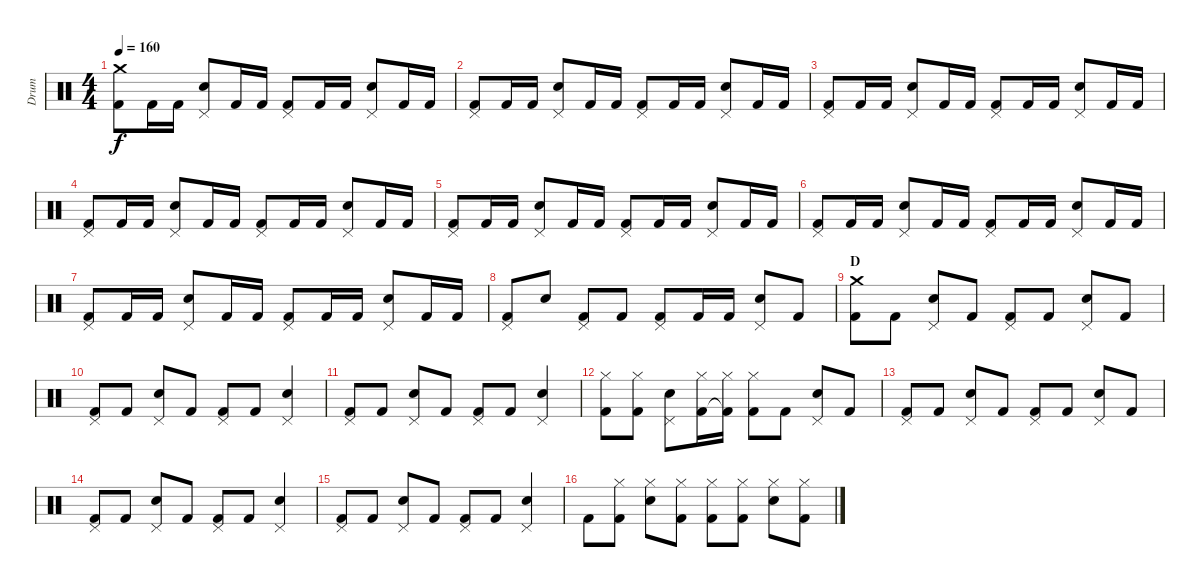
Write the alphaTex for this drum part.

\track ("Drum" "Drum") {instrument percussion}
\staff {score}
\articulation defaults
\ts (4 4)
\tempo 160
\clef neutral
\ks c
("Crash medium (hit)" "Kick (hit) 2").8{dy f} "Kick (hit) 2".16 "Kick (hit) 2".16 ("Pedal Hi-Hat (hit)" "Snare (hit) 2").8 "Kick (hit) 2".16 "Kick (hit) 2".16 ("Pedal Hi-Hat (hit)" "Kick (hit) 2").8 "Kick (hit) 2".16 "Kick (hit) 2".16 ("Pedal Hi-Hat (hit)" "Snare (hit) 2").8 "Kick (hit) 2".16 "Kick (hit) 2".16 |
("Pedal Hi-Hat (hit)" "Kick (hit) 2").8 "Kick (hit) 2".16 "Kick (hit) 2".16 ("Pedal Hi-Hat (hit)" "Snare (hit) 2").8 "Kick (hit) 2".16 "Kick (hit) 2".16 ("Pedal Hi-Hat (hit)" "Kick (hit) 2").8 "Kick (hit) 2".16 "Kick (hit) 2".16 ("Pedal Hi-Hat (hit)" "Snare (hit) 2").8 "Kick (hit) 2".16 "Kick (hit) 2".16 |
("Pedal Hi-Hat (hit)" "Kick (hit) 2").8 "Kick (hit) 2".16 "Kick (hit) 2".16 ("Pedal Hi-Hat (hit)" "Snare (hit) 2").8 "Kick (hit) 2".16 "Kick (hit) 2".16 ("Pedal Hi-Hat (hit)" "Kick (hit) 2").8 "Kick (hit) 2".16 "Kick (hit) 2".16 ("Pedal Hi-Hat (hit)" "Snare (hit) 2").8 "Kick (hit) 2".16 "Kick (hit) 2".16 |
("Pedal Hi-Hat (hit)" "Kick (hit) 2").8 "Kick (hit) 2".16 "Kick (hit) 2".16 ("Pedal Hi-Hat (hit)" "Snare (hit) 2").8 "Kick (hit) 2".16 "Kick (hit) 2".16 ("Pedal Hi-Hat (hit)" "Kick (hit) 2").8 "Kick (hit) 2".16 "Kick (hit) 2".16 ("Pedal Hi-Hat (hit)" "Snare (hit) 2").8 "Kick (hit) 2".16 "Kick (hit) 2".16 |
("Pedal Hi-Hat (hit)" "Kick (hit) 2").8 "Kick (hit) 2".16 "Kick (hit) 2".16 ("Pedal Hi-Hat (hit)" "Snare (hit) 2").8 "Kick (hit) 2".16 "Kick (hit) 2".16 ("Pedal Hi-Hat (hit)" "Kick (hit) 2").8 "Kick (hit) 2".16 "Kick (hit) 2".16 ("Pedal Hi-Hat (hit)" "Snare (hit) 2").8 "Kick (hit) 2".16 "Kick (hit) 2".16 |
("Pedal Hi-Hat (hit)" "Kick (hit) 2").8 "Kick (hit) 2".16 "Kick (hit) 2".16 ("Pedal Hi-Hat (hit)" "Snare (hit) 2").8 "Kick (hit) 2".16 "Kick (hit) 2".16 ("Pedal Hi-Hat (hit)" "Kick (hit) 2").8 "Kick (hit) 2".16 "Kick (hit) 2".16 ("Pedal Hi-Hat (hit)" "Snare (hit) 2").8 "Kick (hit) 2".16 "Kick (hit) 2".16 |
("Pedal Hi-Hat (hit)" "Kick (hit) 2").8 "Kick (hit) 2".16 "Kick (hit) 2".16 ("Pedal Hi-Hat (hit)" "Snare (hit) 2").8 "Kick (hit) 2".16 "Kick (hit) 2".16 ("Pedal Hi-Hat (hit)" "Kick (hit) 2").8 "Kick (hit) 2".16 "Kick (hit) 2".16 ("Pedal Hi-Hat (hit)" "Snare (hit) 2").8 "Kick (hit) 2".16 "Kick (hit) 2".16 |
("Pedal Hi-Hat (hit)" "Kick (hit) 2").8 "Snare (hit) 2".8 ("Pedal Hi-Hat (hit)" "Kick (hit) 2").8 "Kick (hit) 2".8 ("Pedal Hi-Hat (hit)" "Kick (hit) 2").8 "Kick (hit) 2".16 "Kick (hit) 2".16 ("Pedal Hi-Hat (hit)" "Snare (hit) 2").8 "Kick (hit) 2".8 |
\section ("" "D")
("Crash medium (hit)" "Kick (hit) 2").8 "Kick (hit) 2".8 ("Pedal Hi-Hat (hit)" "Snare (hit) 2").8 "Kick (hit) 2".8 ("Pedal Hi-Hat (hit)" "Kick (hit) 2").8 "Kick (hit) 2".8 ("Pedal Hi-Hat (hit)" "Snare (hit) 2").8 "Kick (hit) 2".8 |
("Pedal Hi-Hat (hit)" "Kick (hit) 2").8 "Kick (hit) 2".8 ("Pedal Hi-Hat (hit)" "Snare (hit) 2").8 "Kick (hit) 2".8 ("Pedal Hi-Hat (hit)" "Kick (hit) 2").8 "Kick (hit) 2".8 ("Pedal Hi-Hat (hit)" "Snare (hit) 2").4 |
("Pedal Hi-Hat (hit)" "Kick (hit) 2").8 "Kick (hit) 2".8 ("Pedal Hi-Hat (hit)" "Snare (hit) 2").8 "Kick (hit) 2".8 ("Pedal Hi-Hat (hit)" "Kick (hit) 2").8 "Kick (hit) 2".8 ("Pedal Hi-Hat (hit)" "Snare (hit) 2").4 |
("Hi-Hat (closed)" "Kick (hit) 2").8 ("Hi-Hat (closed)" "Kick (hit) 2").8 ("Pedal Hi-Hat (hit)" "Snare (hit) 2").8 ("Hi-Hat (closed)" "Kick (hit) 2").16 ("Hi-Hat (closed)" "Kick (hit) 2"{t}).16 ("Hi-Hat (closed)" "Kick (hit) 2").8 "Kick (hit) 2".8 ("Pedal Hi-Hat (hit)" "Snare (hit) 2").8 "Kick (hit) 2".8 |
("Pedal Hi-Hat (hit)" "Kick (hit) 2").8 "Kick (hit) 2".8 ("Pedal Hi-Hat (hit)" "Snare (hit) 2").8 "Kick (hit) 2".8 ("Pedal Hi-Hat (hit)" "Kick (hit) 2").8 "Kick (hit) 2".8 ("Pedal Hi-Hat (hit)" "Snare (hit) 2").8 "Kick (hit) 2".8 |
("Pedal Hi-Hat (hit)" "Kick (hit) 2").8 "Kick (hit) 2".8 ("Pedal Hi-Hat (hit)" "Snare (hit) 2").8 "Kick (hit) 2".8 ("Pedal Hi-Hat (hit)" "Kick (hit) 2").8 "Kick (hit) 2".8 ("Pedal Hi-Hat (hit)" "Snare (hit) 2").4 |
("Pedal Hi-Hat (hit)" "Kick (hit) 2").8 "Kick (hit) 2".8 ("Pedal Hi-Hat (hit)" "Snare (hit) 2").8 "Kick (hit) 2".8 ("Pedal Hi-Hat (hit)" "Kick (hit) 2").8 "Kick (hit) 2".8 ("Pedal Hi-Hat (hit)" "Snare (hit) 2").4 |
"Kick (hit) 2".8 ("Hi-Hat (closed)" "Kick (hit) 2").8 ("Hi-Hat (closed)" "Snare (hit) 2").8 ("Hi-Hat (closed)" "Kick (hit) 2").8 ("Hi-Hat (closed)" "Kick (hit) 2").8 ("Hi-Hat (closed)" "Kick (hit) 2").8 ("Hi-Hat (closed)" "Snare (hit) 2").8 ("Hi-Hat (closed)" "Kick (hit) 2").8
